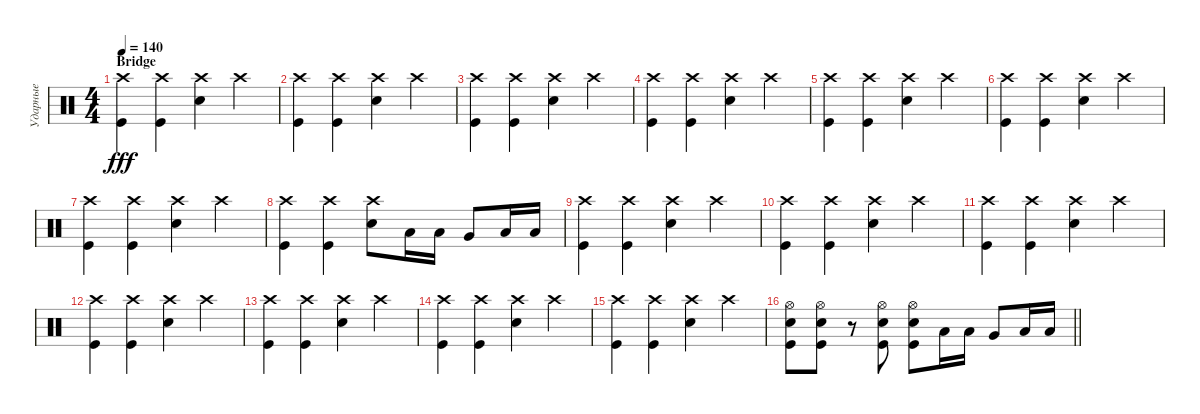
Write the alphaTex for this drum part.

\track ("Ударные" "Ударные") {instrument percussion}
\staff {score}
\articulation defaults
\ts (4 4)
\section ("" "Bridge")
\tempo 140
\clef neutral
\ks c
("Kick (hit)" "Crash high (hit)").4{dy fff} ("Kick (hit)" "Crash high (hit)").4 ("Snare (hit) 2" "Crash high (hit)").4 "Crash high (hit)".4 |
("Kick (hit)" "Crash high (hit)").4 ("Kick (hit)" "Crash high (hit)").4 ("Snare (hit) 2" "Crash high (hit)").4 "Crash high (hit)".4 |
("Kick (hit)" "Crash high (hit)").4 ("Kick (hit)" "Crash high (hit)").4 ("Snare (hit) 2" "Crash high (hit)").4 "Crash high (hit)".4 |
("Kick (hit)" "Crash high (hit)").4 ("Kick (hit)" "Crash high (hit)").4 ("Snare (hit) 2" "Crash high (hit)").4 "Crash high (hit)".4 |
("Kick (hit)" "Crash high (hit)").4 ("Kick (hit)" "Crash high (hit)").4 ("Snare (hit) 2" "Crash high (hit)").4 "Crash high (hit)".4 |
("Kick (hit)" "Crash high (hit)").4 ("Kick (hit)" "Crash high (hit)").4 ("Snare (hit) 2" "Crash high (hit)").4 "Crash high (hit)".4 |
("Kick (hit)" "Crash high (hit)").4 ("Kick (hit)" "Crash high (hit)").4 ("Snare (hit) 2" "Crash high (hit)").4 "Crash high (hit)".4 |
("Kick (hit)" "Crash high (hit)").4 ("Kick (hit)" "Crash high (hit)").4 ("Snare (hit) 2" "Crash high (hit)").8 "Low Tom (hit)".16 "Low Tom (hit)".16 "Very Low Tom (hit)".8 "Low Floor Tom (hit)".16 "Low Floor Tom (hit)".16 |
("Kick (hit)" "Crash high (hit)").4 ("Kick (hit)" "Crash high (hit)").4 ("Snare (hit) 2" "Crash high (hit)").4 "Crash high (hit)".4 |
("Kick (hit)" "Crash high (hit)").4 ("Kick (hit)" "Crash high (hit)").4 ("Snare (hit) 2" "Crash high (hit)").4 "Crash high (hit)".4 |
("Kick (hit)" "Crash high (hit)").4 ("Kick (hit)" "Crash high (hit)").4 ("Snare (hit) 2" "Crash high (hit)").4 "Crash high (hit)".4 |
("Kick (hit)" "Crash high (hit)").4 ("Kick (hit)" "Crash high (hit)").4 ("Snare (hit) 2" "Crash high (hit)").4 "Crash high (hit)".4 |
("Kick (hit)" "Crash high (hit)").4 ("Kick (hit)" "Crash high (hit)").4 ("Snare (hit) 2" "Crash high (hit)").4 "Crash high (hit)".4 |
("Kick (hit)" "Crash high (hit)").4 ("Kick (hit)" "Crash high (hit)").4 ("Snare (hit) 2" "Crash high (hit)").4 "Crash high (hit)".4 |
("Kick (hit)" "Crash high (hit)").4 ("Kick (hit)" "Crash high (hit)").4 ("Snare (hit) 2" "Crash high (hit)").4 "Crash high (hit)".4 |
\barLineRight lightlight
("Hi-Hat (open)" "Snare (hit) 2" "Kick (hit)").8 ("Hi-Hat (open)" "Snare (hit) 2" "Kick (hit)").8 r.8 ("Hi-Hat (open)" "Snare (hit) 2" "Kick (hit)").8 ("Snare (hit) 2" "Hi-Hat (open)" "Kick (hit)").8 "Low Tom (hit)".16 "Low Tom (hit)".16 "Very Low Tom (hit)".8 "Low Floor Tom (hit)".16 "Low Floor Tom (hit)".16
